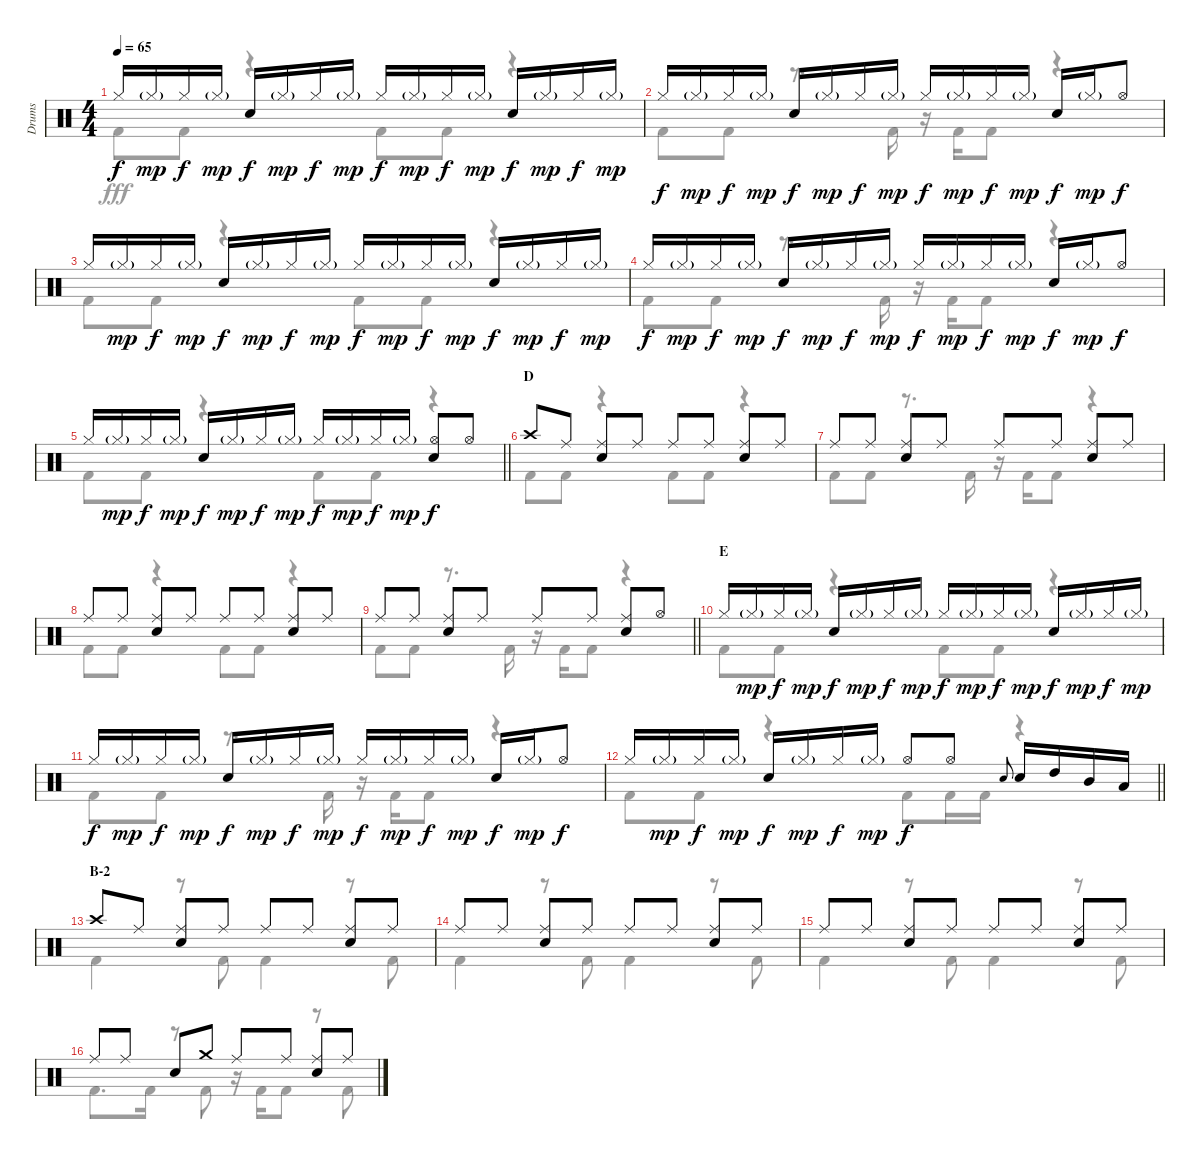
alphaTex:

\track ("Drums" "Drums") {instrument percussion}
\staff {score}
\articulation defaults
\voice
\ts (4 4)
\tempo 65
\clef neutral
\ks c "Hi-Hat (closed)".16{dy f} "Hi-Hat (closed)"{g}.16{dy mp} "Hi-Hat (closed)".16{dy f} "Hi-Hat (closed)"{g}.16{dy mp} "Snare (hit) 2".16{dy f} "Hi-Hat (closed)"{g}.16{dy mp} "Hi-Hat (closed)".16{dy f} "Hi-Hat (closed)"{g}.16{dy mp} "Hi-Hat (closed)".16{dy f} "Hi-Hat (closed)"{g}.16{dy mp} "Hi-Hat (closed)".16{dy f} "Hi-Hat (closed)"{g}.16{dy mp} "Snare (hit) 2".16{dy f} "Hi-Hat (closed)"{g}.16{dy mp} "Hi-Hat (closed)".16{dy f} "Hi-Hat (closed)"{g}.16{dy mp}
|
"Hi-Hat (closed)".16{dy f} "Hi-Hat (closed)"{g}.16{dy mp} "Hi-Hat (closed)".16{dy f} "Hi-Hat (closed)"{g}.16{dy mp} "Snare (hit) 2".16{dy f} "Hi-Hat (closed)"{g}.16{dy mp} "Hi-Hat (closed)".16{dy f} "Hi-Hat (closed)"{g}.16{dy mp} "Hi-Hat (closed)".16{dy f} "Hi-Hat (closed)"{g}.16{dy mp} "Hi-Hat (closed)".16{dy f} "Hi-Hat (closed)"{g}.16{dy mp} "Snare (hit) 2".16{dy f} "Hi-Hat (closed)"{g}.16{dy mp} "Hi-Hat (open)".8{dy f} |
"Hi-Hat (closed)".16 "Hi-Hat (closed)"{g}.16{dy mp} "Hi-Hat (closed)".16{dy f} "Hi-Hat (closed)"{g}.16{dy mp} "Snare (hit) 2".16{dy f} "Hi-Hat (closed)"{g}.16{dy mp} "Hi-Hat (closed)".16{dy f} "Hi-Hat (closed)"{g}.16{dy mp} "Hi-Hat (closed)".16{dy f} "Hi-Hat (closed)"{g}.16{dy mp} "Hi-Hat (closed)".16{dy f} "Hi-Hat (closed)"{g}.16{dy mp} "Snare (hit) 2".16{dy f} "Hi-Hat (closed)"{g}.16{dy mp} "Hi-Hat (closed)".16{dy f} "Hi-Hat (closed)"{g}.16{dy mp} |
"Hi-Hat (closed)".16{dy f} "Hi-Hat (closed)"{g}.16{dy mp} "Hi-Hat (closed)".16{dy f} "Hi-Hat (closed)"{g}.16{dy mp} "Snare (hit) 2".16{dy f} "Hi-Hat (closed)"{g}.16{dy mp} "Hi-Hat (closed)".16{dy f} "Hi-Hat (closed)"{g}.16{dy mp} "Hi-Hat (closed)".16{dy f} "Hi-Hat (closed)"{g}.16{dy mp} "Hi-Hat (closed)".16{dy f} "Hi-Hat (closed)"{g}.16{dy mp} "Snare (hit) 2".16{dy f} "Hi-Hat (closed)"{g}.16{dy mp} "Hi-Hat (open)".8{dy f} |
\barLineRight lightlight "Hi-Hat (closed)".16 "Hi-Hat (closed)"{g}.16{dy mp} "Hi-Hat (closed)".16{dy f} "Hi-Hat (closed)"{g}.16{dy mp} "Snare (hit) 2".16{dy f} "Hi-Hat (closed)"{g}.16{dy mp} "Hi-Hat (closed)".16{dy f} "Hi-Hat (closed)"{g}.16{dy mp} "Hi-Hat (closed)".16{dy f} "Hi-Hat (closed)"{g}.16{dy mp} "Hi-Hat (closed)".16{dy f} "Hi-Hat (closed)"{g}.16{dy mp}
("Hi-Hat (open)" "Snare (hit) 2").8{dy f} "Hi-Hat (open)".8 |
\section ("" "D")
"Crash high (hit)".8 "Ride (middle)".8 ("Ride (middle)" "Snare (hit) 2").8 "Ride (middle)".8 "Ride (middle)".8 "Ride (middle)".8 ("Ride (middle)" "Snare (hit) 2").8 "Ride (middle)".8 |
"Ride (middle)".8 "Ride (middle)".8 ("Ride (middle)" "Snare (hit) 2").8 "Ride (middle)".8 "Ride (middle)".8 "Ride (middle)".8 ("Ride (middle)" "Snare (hit) 2").8 "Ride (middle)".8 |
"Ride (middle)".8 "Ride (middle)".8 ("Ride (middle)" "Snare (hit) 2").8 "Ride (middle)".8 "Ride (middle)".8 "Ride (middle)".8 ("Ride (middle)" "Snare (hit) 2").8 "Ride (middle)".8 |
\barLineRight lightlight "Ride (middle)".8 "Ride (middle)".8
("Ride (middle)" "Snare (hit) 2").8 "Ride (middle)".8 "Ride (middle)".8 "Ride (middle)".8 ("Ride (middle)" "Snare (hit) 2").8 "Hi-Hat (open)".8 |
\section ("" "E")
"Hi-Hat (closed)".16 "Hi-Hat (closed)"{g}.16{dy mp} "Hi-Hat (closed)".16{dy f} "Hi-Hat (closed)"{g}.16{dy mp} "Snare (hit) 2".16{dy f} "Hi-Hat (closed)"{g}.16{dy mp} "Hi-Hat (closed)".16{dy f} "Hi-Hat (closed)"{g}.16{dy mp} "Hi-Hat (closed)".16{dy f} "Hi-Hat (closed)"{g}.16{dy mp} "Hi-Hat (closed)".16{dy f} "Hi-Hat (closed)"{g}.16{dy mp} "Snare (hit) 2".16{dy f} "Hi-Hat (closed)"{g}.16{dy mp} "Hi-Hat (closed)".16{dy f} "Hi-Hat (closed)"{g}.16{dy mp} |
"Hi-Hat (closed)".16{dy f} "Hi-Hat (closed)"{g}.16{dy mp} "Hi-Hat (closed)".16{dy f} "Hi-Hat (closed)"{g}.16{dy mp} "Snare (hit) 2".16{dy f} "Hi-Hat (closed)"{g}.16{dy mp} "Hi-Hat (closed)".16{dy f} "Hi-Hat (closed)"{g}.16{dy mp} "Hi-Hat (closed)".16{dy f} "Hi-Hat (closed)"{g}.16{dy mp} "Hi-Hat (closed)".16{dy f} "Hi-Hat (closed)"{g}.16{dy mp} "Snare (hit) 2".16{dy f} "Hi-Hat (closed)"{g}.16{dy mp} "Hi-Hat (open)".8{dy f} |
\barLineRight lightlight "Hi-Hat (closed)".16 "Hi-Hat (closed)"{g}.16{dy mp} "Hi-Hat (closed)".16{dy f} "Hi-Hat (closed)"{g}.16{dy mp} "Snare (hit) 2".16{dy f} "Hi-Hat (closed)"{g}.16{dy mp} "Hi-Hat (closed)".16{dy f} "Hi-Hat (closed)"{g}.16{dy mp} "Hi-Hat (open)".8{dy f} "Hi-Hat (open)".8 "Snare (hit) 2".8{gr onbeat} "Snare (hit) 2".16 "High Tom (hit)".16 "Mid Tom (hit)".16 "Low Tom (hit)".16
|
\section ("" "B-2")
"Crash high (hit)".8 "Ride (middle)".8 ("Ride (middle)" "Snare (hit) 2").8 "Ride (middle)".8 "Ride (middle)".8 "Ride (middle)".8 ("Ride (middle)" "Snare (hit) 2").8 "Ride (middle)".8 |
"Ride (middle)".8 "Ride (middle)".8 ("Ride (middle)" "Snare (hit) 2").8 "Ride (middle)".8 "Ride (middle)".8 "Ride (middle)".8 ("Ride (middle)" "Snare (hit) 2").8 "Ride (middle)".8 |
"Ride (middle)".8 "Ride (middle)".8 ("Ride (middle)" "Snare (hit) 2").8 "Ride (middle)".8 "Ride (middle)".8 "Ride (middle)".8 ("Ride (middle)" "Snare (hit) 2").8 "Ride (middle)".8 |
"Ride (middle)".8 "Ride (middle)".8 "Snare (hit) 2".8 "Crash medium (hit)".8 "Ride (middle)".8 "Ride (middle)".8 ("Ride (middle)" "Snare (hit) 2").8 "Ride (middle)".8
\voice
\clef neutral
\ottava regular
\simile none
\ks c "Kick (hit) 2".8{dy fff} "Kick (hit) 2".8
r.4 "Kick (hit) 2".8 "Kick (hit) 2".8 r.4 |
"Kick (hit) 2".8 "Kick (hit) 2".8 r.8{d} "Kick (hit) 2".16 r.16 "Kick (hit) 2".16 "Kick (hit) 2".8 r.4 |
"Kick (hit) 2".8 "Kick (hit) 2".8 r.4 "Kick (hit) 2".8 "Kick (hit) 2".8 r.4 |
"Kick (hit) 2".8 "Kick (hit) 2".8 r.8{d} "Kick (hit) 2".16 r.16 "Kick (hit) 2".16 "Kick (hit) 2".8 r.4 |
\barLineRight lightlight "Kick (hit) 2".8 "Kick (hit) 2".8
r.4 "Kick (hit) 2".8 "Kick (hit) 2".8 r.4 |
"Kick (hit) 2".8 "Kick (hit) 2".8 r.4 "Kick (hit) 2".8 "Kick (hit) 2".8 r.4 |
"Kick (hit) 2".8 "Kick (hit) 2".8 r.8{d} "Kick (hit) 2".16 r.16 "Kick (hit) 2".16 "Kick (hit) 2".8 r.4 |
"Kick (hit) 2".8 "Kick (hit) 2".8 r.4 "Kick (hit) 2".8 "Kick (hit) 2".8 r.4 |
\barLineRight lightlight "Kick (hit) 2".8 "Kick (hit) 2".8
r.8{d} "Kick (hit) 2".16 r.16 "Kick (hit) 2".16 "Kick (hit) 2".8 r.4 |
"Kick (hit) 2".8 "Kick (hit) 2".8 r.4 "Kick (hit) 2".8 "Kick (hit) 2".8 r.4 |
"Kick (hit) 2".8 "Kick (hit) 2".8 r.8{d} "Kick (hit) 2".16 r.16 "Kick (hit) 2".16 "Kick (hit) 2".8 r.4 |
\barLineRight lightlight "Kick (hit) 2".8 "Kick (hit) 2".8
r.4 "Kick (hit) 2".8 "Kick (hit) 2".16 "Kick (hit) 2".16 r.4 |
"Kick (hit) 2".4 r.8 "Kick (hit) 2".8 "Kick (hit) 2".4 r.8 "Kick (hit) 2".8 |
"Kick (hit) 2".4 r.8 "Kick (hit) 2".8 "Kick (hit) 2".4 r.8 "Kick (hit) 2".8 |
"Kick (hit) 2".4 r.8 "Kick (hit) 2".8 "Kick (hit) 2".4 r.8 "Kick (hit) 2".8 |
"Kick (hit) 2".8{d} "Kick (hit) 2".16 r.8 "Kick (hit) 2".8 r.16 "Kick (hit) 2".16 "Kick (hit) 2".8 r.8 "Kick (hit) 2".8
